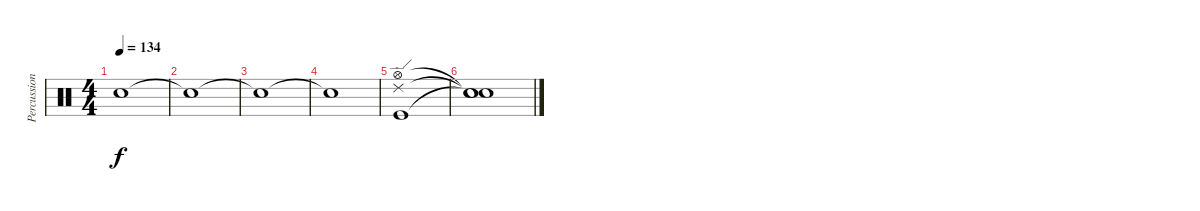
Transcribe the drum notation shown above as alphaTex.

\track ("Percussion" "Percussion") {instrument percussion}
\staff {score}
\articulation defaults
\ts (4 4)
\tempo 134
\clef neutral
\ks c "Snare (hit)"{t}.1{dy f}
|
"Snare (hit)"{t}.1 |
"Snare (hit)"{t}.1 |
"Snare (hit)"{t}.1 |
("Hi-Hat (open)" "Ride (edge) 2" "Kick (hit)").1 |
("Snare (hit)"{t} "Snare (hit)"{t} "Snare (hit)"{t}).1
